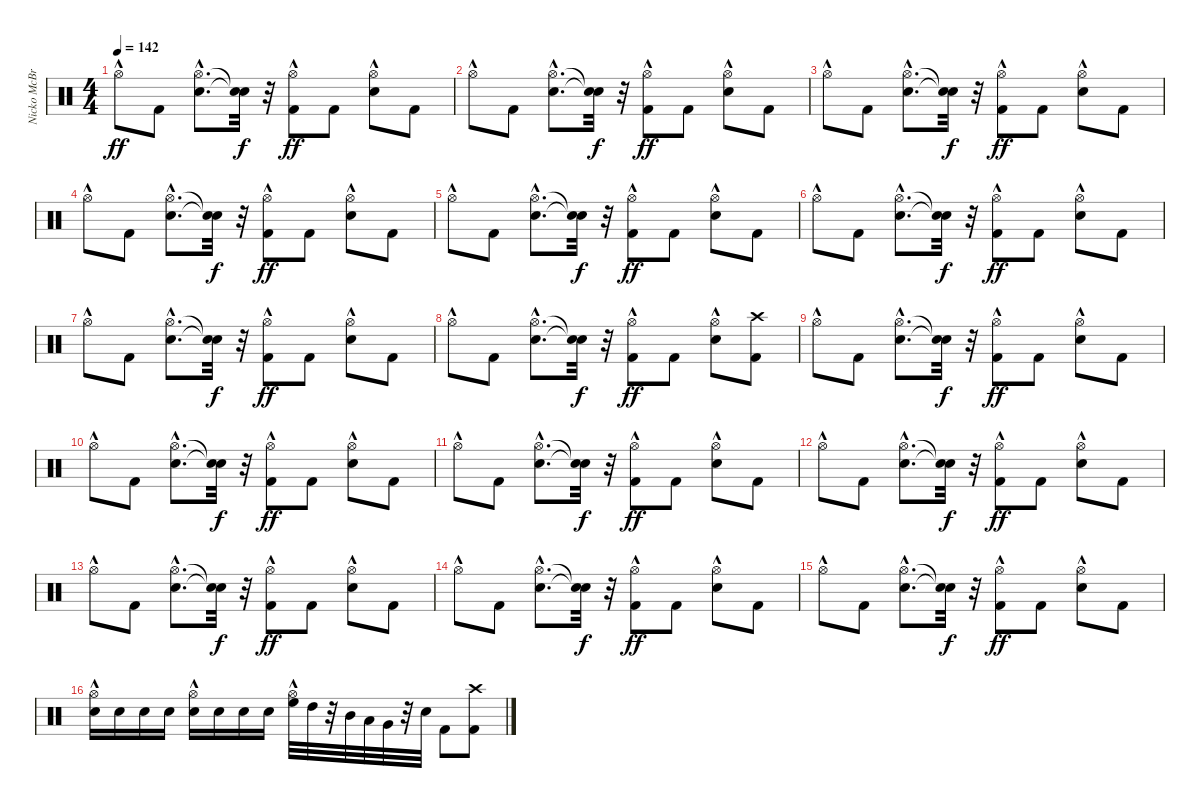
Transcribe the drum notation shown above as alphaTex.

\track ("Nicko McBrain" "Nicko McBr") {instrument percussion}
\staff {score}
\articulation defaults
\ts (4 4)
\tempo 142
\clef neutral
\ks c "Hi-Hat (open)"{hac}.8{dy ff} "Kick (hit) 2".8
("Snare (hit) 2"{hac} "Hi-Hat (open)"{hac}).8{d} ("Snare (hit)"{t} "Snare (hit)"{t}).32{dy f} r.32 ("Kick (hit) 2" "Hi-Hat (open)"{hac}).8{dy ff} "Kick (hit) 2".8 ("Snare (hit) 2" "Hi-Hat (open)"{hac}).8 "Kick (hit) 2".8 |
"Hi-Hat (open)"{hac}.8 "Kick (hit) 2".8 ("Snare (hit) 2"{hac} "Hi-Hat (open)"{hac}).8{d} ("Snare (hit)"{t} "Snare (hit)"{t}).32{dy f} r.32 ("Kick (hit) 2" "Hi-Hat (open)"{hac}).8{dy ff} "Kick (hit) 2".8 ("Snare (hit) 2" "Hi-Hat (open)"{hac}).8 "Kick (hit) 2".8 |
"Hi-Hat (open)"{hac}.8 "Kick (hit) 2".8 ("Snare (hit) 2"{hac} "Hi-Hat (open)"{hac}).8{d} ("Snare (hit)"{t} "Snare (hit)"{t}).32{dy f} r.32 ("Kick (hit) 2" "Hi-Hat (open)"{hac}).8{dy ff} "Kick (hit) 2".8 ("Snare (hit) 2" "Hi-Hat (open)"{hac}).8 "Kick (hit) 2".8 |
"Hi-Hat (open)"{hac}.8 "Kick (hit) 2".8 ("Snare (hit) 2"{hac} "Hi-Hat (open)"{hac}).8{d} ("Snare (hit)"{t} "Snare (hit)"{t}).32{dy f} r.32 ("Kick (hit) 2" "Hi-Hat (open)"{hac}).8{dy ff} "Kick (hit) 2".8 ("Snare (hit) 2" "Hi-Hat (open)"{hac}).8 "Kick (hit) 2".8 |
"Hi-Hat (open)"{hac}.8 "Kick (hit) 2".8 ("Snare (hit) 2"{hac} "Hi-Hat (open)"{hac}).8{d} ("Snare (hit)"{t} "Snare (hit)"{t}).32{dy f} r.32 ("Kick (hit) 2" "Hi-Hat (open)"{hac}).8{dy ff} "Kick (hit) 2".8 ("Snare (hit) 2" "Hi-Hat (open)"{hac}).8 "Kick (hit) 2".8 |
"Hi-Hat (open)"{hac}.8 "Kick (hit) 2".8 ("Snare (hit) 2"{hac} "Hi-Hat (open)"{hac}).8{d} ("Snare (hit)"{t} "Snare (hit)"{t}).32{dy f} r.32 ("Kick (hit) 2" "Hi-Hat (open)"{hac}).8{dy ff} "Kick (hit) 2".8 ("Snare (hit) 2" "Hi-Hat (open)"{hac}).8 "Kick (hit) 2".8 |
"Hi-Hat (open)"{hac}.8 "Kick (hit) 2".8 ("Snare (hit) 2"{hac} "Hi-Hat (open)"{hac}).8{d} ("Snare (hit)"{t} "Snare (hit)"{t}).32{dy f} r.32 ("Kick (hit) 2" "Hi-Hat (open)"{hac}).8{dy ff} "Kick (hit) 2".8 ("Snare (hit) 2" "Hi-Hat (open)"{hac}).8 "Kick (hit) 2".8 |
"Hi-Hat (open)"{hac}.8 "Kick (hit) 2".8 ("Snare (hit) 2"{hac} "Hi-Hat (open)"{hac}).8{d} ("Snare (hit)"{t} "Snare (hit)"{t}).32{dy f} r.32 ("Kick (hit) 2" "Hi-Hat (open)"{hac}).8{dy ff} "Kick (hit) 2".8 ("Snare (hit) 2" "Hi-Hat (open)"{hac}).8 ("Kick (hit) 2" "Crash high (hit)").8 |
"Hi-Hat (open)"{hac}.8 "Kick (hit) 2".8 ("Snare (hit) 2"{hac} "Hi-Hat (open)"{hac}).8{d} ("Snare (hit)"{t} "Snare (hit)"{t}).32{dy f} r.32 ("Kick (hit) 2" "Hi-Hat (open)"{hac}).8{dy ff} "Kick (hit) 2".8 ("Snare (hit) 2" "Hi-Hat (open)"{hac}).8 "Kick (hit) 2".8 |
"Hi-Hat (open)"{hac}.8 "Kick (hit) 2".8 ("Snare (hit) 2"{hac} "Hi-Hat (open)"{hac}).8{d} ("Snare (hit)"{t} "Snare (hit)"{t}).32{dy f} r.32 ("Kick (hit) 2" "Hi-Hat (open)"{hac}).8{dy ff} "Kick (hit) 2".8 ("Snare (hit) 2" "Hi-Hat (open)"{hac}).8 "Kick (hit) 2".8 |
"Hi-Hat (open)"{hac}.8 "Kick (hit) 2".8 ("Snare (hit) 2"{hac} "Hi-Hat (open)"{hac}).8{d} ("Snare (hit)"{t} "Snare (hit)"{t}).32{dy f} r.32 ("Kick (hit) 2" "Hi-Hat (open)"{hac}).8{dy ff} "Kick (hit) 2".8 ("Snare (hit) 2" "Hi-Hat (open)"{hac}).8 "Kick (hit) 2".8 |
"Hi-Hat (open)"{hac}.8 "Kick (hit) 2".8 ("Snare (hit) 2"{hac} "Hi-Hat (open)"{hac}).8{d} ("Snare (hit)"{t} "Snare (hit)"{t}).32{dy f} r.32 ("Kick (hit) 2" "Hi-Hat (open)"{hac}).8{dy ff} "Kick (hit) 2".8 ("Snare (hit) 2" "Hi-Hat (open)"{hac}).8 "Kick (hit) 2".8 |
"Hi-Hat (open)"{hac}.8 "Kick (hit) 2".8 ("Snare (hit) 2"{hac} "Hi-Hat (open)"{hac}).8{d} ("Snare (hit)"{t} "Snare (hit)"{t}).32{dy f} r.32 ("Kick (hit) 2" "Hi-Hat (open)"{hac}).8{dy ff} "Kick (hit) 2".8 ("Snare (hit) 2" "Hi-Hat (open)"{hac}).8 "Kick (hit) 2".8 |
"Hi-Hat (open)"{hac}.8 "Kick (hit) 2".8 ("Snare (hit) 2"{hac} "Hi-Hat (open)"{hac}).8{d} ("Snare (hit)"{t} "Snare (hit)"{t}).32{dy f} r.32 ("Kick (hit) 2" "Hi-Hat (open)"{hac}).8{dy ff} "Kick (hit) 2".8 ("Snare (hit) 2" "Hi-Hat (open)"{hac}).8 "Kick (hit) 2".8 |
"Hi-Hat (open)"{hac}.8 "Kick (hit) 2".8 ("Snare (hit) 2"{hac} "Hi-Hat (open)"{hac}).8{d} ("Snare (hit)"{t} "Snare (hit)"{t}).32{dy f} r.32 ("Kick (hit) 2" "Hi-Hat (open)"{hac}).8{dy ff} "Kick (hit) 2".8 ("Snare (hit) 2" "Hi-Hat (open)"{hac}).8 "Kick (hit) 2".8 |
("Snare (hit) 2" "Hi-Hat (open)"{hac}).16 "Snare (hit) 2".16 "Snare (hit) 2".16 "Snare (hit) 2".16 ("Snare (hit) 2" "Hi-Hat (open)"{hac}).16 "Snare (hit) 2".16 "Snare (hit) 2".16 "Snare (hit) 2".16 ("Hi-Hat (open)"{hac} "High Floor Tom (hit)").32 "High Tom (hit)".32 r.32 "Mid Tom (hit)".32 "Low Tom (hit)".32 "Very Low Tom (hit)".32 r.32 "Electric Snare (hit)".32 "Kick (hit) 2".8 ("Kick (hit) 2" "Crash high (hit)").8
